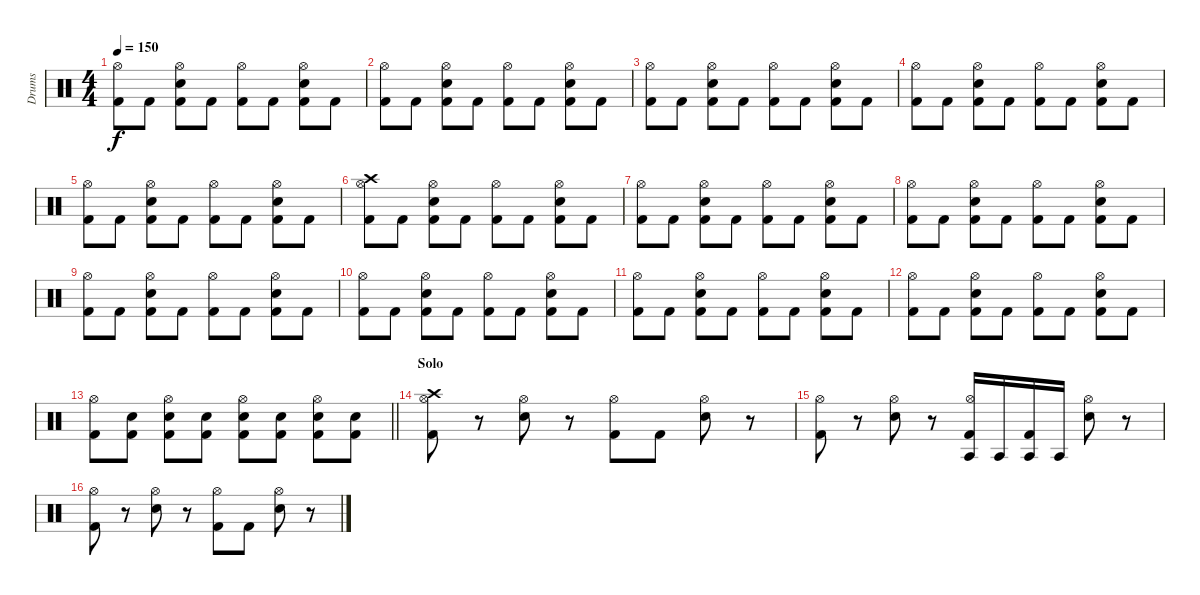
\track ("Drums" "Drums") {instrument percussion}
\staff {score}
\articulation defaults
\ts (4 4)
\tempo 150
\clef neutral
\ks c
("Hi-Hat (open)" "Kick (hit) 2").8{dy f} "Kick (hit) 2".8 ("Hi-Hat (open)" "Snare (hit) 2" "Kick (hit) 2").8 "Kick (hit) 2".8 ("Hi-Hat (open)" "Kick (hit) 2").8 "Kick (hit) 2".8 ("Hi-Hat (open)" "Snare (hit) 2" "Kick (hit) 2").8 "Kick (hit) 2".8 |
("Hi-Hat (open)" "Kick (hit) 2").8 "Kick (hit) 2".8 ("Hi-Hat (open)" "Snare (hit) 2" "Kick (hit) 2").8 "Kick (hit) 2".8 ("Hi-Hat (open)" "Kick (hit) 2").8 "Kick (hit) 2".8 ("Hi-Hat (open)" "Snare (hit) 2" "Kick (hit) 2").8 "Kick (hit) 2".8 |
("Hi-Hat (open)" "Kick (hit) 2").8 "Kick (hit) 2".8 ("Hi-Hat (open)" "Snare (hit) 2" "Kick (hit) 2").8 "Kick (hit) 2".8 ("Hi-Hat (open)" "Kick (hit) 2").8 "Kick (hit) 2".8 ("Hi-Hat (open)" "Snare (hit) 2" "Kick (hit) 2").8 "Kick (hit) 2".8 |
("Hi-Hat (open)" "Kick (hit) 2").8 "Kick (hit) 2".8 ("Hi-Hat (open)" "Snare (hit) 2" "Kick (hit) 2").8 "Kick (hit) 2".8 ("Hi-Hat (open)" "Kick (hit) 2").8 "Kick (hit) 2".8 ("Hi-Hat (open)" "Snare (hit) 2" "Kick (hit) 2").8 "Kick (hit) 2".8 |
("Hi-Hat (open)" "Kick (hit) 2").8 "Kick (hit) 2".8 ("Hi-Hat (open)" "Snare (hit) 2" "Kick (hit) 2").8 "Kick (hit) 2".8 ("Hi-Hat (open)" "Kick (hit) 2").8 "Kick (hit) 2".8 ("Hi-Hat (open)" "Snare (hit) 2" "Kick (hit) 2").8 "Kick (hit) 2".8 |
("Crash high (hit)" "Hi-Hat (open)" "Kick (hit) 2").8 "Kick (hit) 2".8 ("Hi-Hat (open)" "Snare (hit) 2" "Kick (hit) 2").8 "Kick (hit) 2".8 ("Hi-Hat (open)" "Kick (hit) 2").8 "Kick (hit) 2".8 ("Hi-Hat (open)" "Snare (hit) 2" "Kick (hit) 2").8 "Kick (hit) 2".8 |
("Hi-Hat (open)" "Kick (hit) 2").8 "Kick (hit) 2".8 ("Hi-Hat (open)" "Snare (hit) 2" "Kick (hit) 2").8 "Kick (hit) 2".8 ("Hi-Hat (open)" "Kick (hit) 2").8 "Kick (hit) 2".8 ("Hi-Hat (open)" "Snare (hit) 2" "Kick (hit) 2").8 "Kick (hit) 2".8 |
("Hi-Hat (open)" "Kick (hit) 2").8 "Kick (hit) 2".8 ("Hi-Hat (open)" "Snare (hit) 2" "Kick (hit) 2").8 "Kick (hit) 2".8 ("Hi-Hat (open)" "Kick (hit) 2").8 "Kick (hit) 2".8 ("Hi-Hat (open)" "Snare (hit) 2" "Kick (hit) 2").8 "Kick (hit) 2".8 |
("Hi-Hat (open)" "Kick (hit) 2").8 "Kick (hit) 2".8 ("Hi-Hat (open)" "Snare (hit) 2" "Kick (hit) 2").8 "Kick (hit) 2".8 ("Hi-Hat (open)" "Kick (hit) 2").8 "Kick (hit) 2".8 ("Hi-Hat (open)" "Snare (hit) 2" "Kick (hit) 2").8 "Kick (hit) 2".8 |
("Hi-Hat (open)" "Kick (hit) 2").8 "Kick (hit) 2".8 ("Hi-Hat (open)" "Snare (hit) 2" "Kick (hit) 2").8 "Kick (hit) 2".8 ("Hi-Hat (open)" "Kick (hit) 2").8 "Kick (hit) 2".8 ("Hi-Hat (open)" "Snare (hit) 2" "Kick (hit) 2").8 "Kick (hit) 2".8 |
("Hi-Hat (open)" "Kick (hit) 2").8 "Kick (hit) 2".8 ("Hi-Hat (open)" "Snare (hit) 2" "Kick (hit) 2").8 "Kick (hit) 2".8 ("Hi-Hat (open)" "Kick (hit) 2").8 "Kick (hit) 2".8 ("Hi-Hat (open)" "Snare (hit) 2" "Kick (hit) 2").8 "Kick (hit) 2".8 |
("Hi-Hat (open)" "Kick (hit) 2").8 "Kick (hit) 2".8 ("Hi-Hat (open)" "Snare (hit) 2" "Kick (hit) 2").8 "Kick (hit) 2".8 ("Hi-Hat (open)" "Kick (hit) 2").8 "Kick (hit) 2".8 ("Hi-Hat (open)" "Snare (hit) 2" "Kick (hit) 2").8 "Kick (hit) 2".8 |
\barLineRight lightlight
("Hi-Hat (open)" "Kick (hit) 2").8 ("Snare (hit) 2" "Kick (hit) 2").8 ("Hi-Hat (open)" "Snare (hit) 2" "Kick (hit) 2").8 ("Snare (hit) 2" "Kick (hit) 2").8 ("Hi-Hat (open)" "Snare (hit) 2" "Kick (hit) 2").8 ("Snare (hit) 2" "Kick (hit) 2").8 ("Hi-Hat (open)" "Snare (hit) 2" "Kick (hit) 2").8 ("Snare (hit) 2" "Kick (hit) 2").8 |
\section ("" "Solo")
("Crash high (hit)" "Hi-Hat (open)" "Kick (hit) 2").8 r.8 ("Hi-Hat (open)" "Snare (hit) 2").8 r.8 ("Hi-Hat (open)" "Kick (hit) 2").8 "Kick (hit) 2".8 ("Hi-Hat (open)" "Snare (hit) 2").8 r.8 |
("Hi-Hat (open)" "Kick (hit) 2").8 r.8 ("Hi-Hat (open)" "Snare (hit) 2").8 r.8 ("Agogo tow (hit)" "Hi-Hat (open)" "Kick (hit) 2").16 "Agogo tow (hit)".16 ("Agogo tow (hit)" "Kick (hit) 2").16 "Agogo tow (hit)".16 ("Hi-Hat (open)" "Snare (hit) 2").8 r.8 |
("Hi-Hat (open)" "Kick (hit) 2").8 r.8 ("Hi-Hat (open)" "Snare (hit) 2").8 r.8 ("Hi-Hat (open)" "Kick (hit) 2").8 "Kick (hit) 2".8 ("Hi-Hat (open)" "Snare (hit) 2").8 r.8
